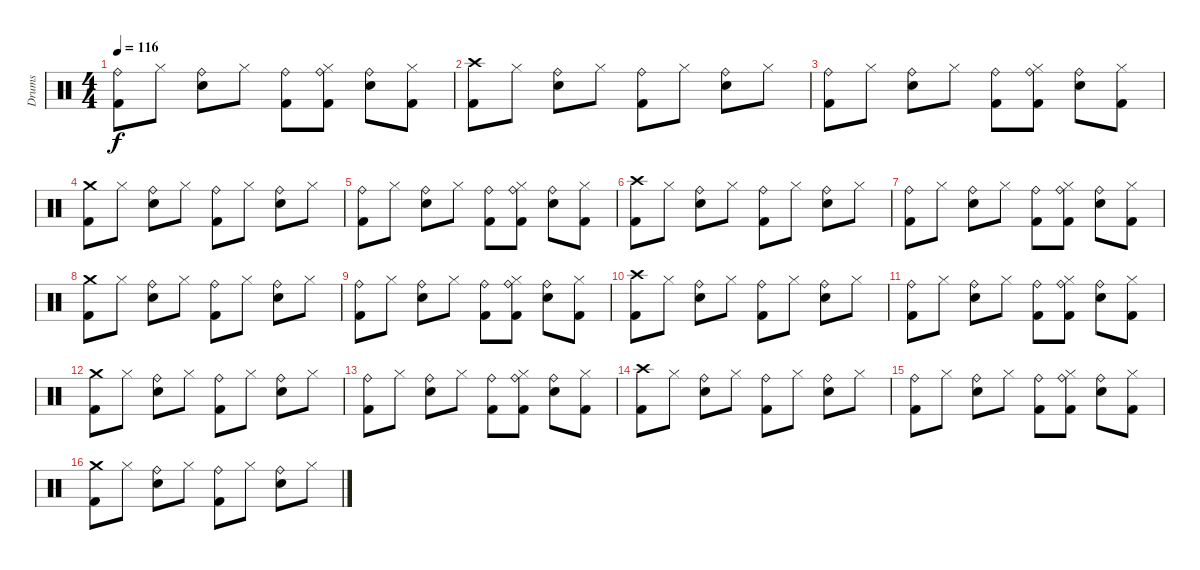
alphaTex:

\track ("Drums" "Drums") {instrument percussion}
\staff {score}
\articulation defaults
\ts (4 4)
\tempo 116
\clef neutral
\ks c
("Kick (hit) 2" "Ride (bell)").8{dy f} "Hi-Hat (closed)".8 ("Snare (hit) 2" "Ride (bell)").8 "Hi-Hat (closed)".8 ("Kick (hit) 2" "Ride (bell)").8 ("Kick (hit) 2" "Hi-Hat (closed)" "Ride (bell)").8 ("Snare (hit) 2" "Ride (bell)").8 ("Kick (hit) 2" "Hi-Hat (closed)").8 |
("Kick (hit) 2" "Crash high (hit)").8 "Hi-Hat (closed)".8 ("Snare (hit) 2" "Ride (bell)").8 "Hi-Hat (closed)".8 ("Kick (hit) 2" "Ride (bell)").8 "Hi-Hat (closed)".8 ("Snare (hit) 2" "Ride (bell)").8 "Hi-Hat (closed)".8 |
("Kick (hit) 2" "Ride (bell)").8 "Hi-Hat (closed)".8 ("Snare (hit) 2" "Ride (bell)").8 "Hi-Hat (closed)".8 ("Kick (hit) 2" "Ride (bell)").8 ("Kick (hit) 2" "Hi-Hat (closed)" "Ride (bell)").8 ("Snare (hit) 2" "Ride (bell)").8 ("Kick (hit) 2" "Hi-Hat (closed)").8 |
("Kick (hit) 2" "Crash medium (hit)").8 "Hi-Hat (closed)".8 ("Snare (hit) 2" "Ride (bell)").8 "Hi-Hat (closed)".8 ("Kick (hit) 2" "Ride (bell)").8 "Hi-Hat (closed)".8 ("Snare (hit) 2" "Ride (bell)").8 "Hi-Hat (closed)".8 |
("Kick (hit) 2" "Ride (bell)").8 "Hi-Hat (closed)".8 ("Snare (hit) 2" "Ride (bell)").8 "Hi-Hat (closed)".8 ("Kick (hit) 2" "Ride (bell)").8 ("Kick (hit) 2" "Hi-Hat (closed)" "Ride (bell)").8 ("Snare (hit) 2" "Ride (bell)").8 ("Kick (hit) 2" "Hi-Hat (closed)").8 |
("Kick (hit) 2" "Crash high (hit)").8 "Hi-Hat (closed)".8 ("Snare (hit) 2" "Ride (bell)").8 "Hi-Hat (closed)".8 ("Kick (hit) 2" "Ride (bell)").8 "Hi-Hat (closed)".8 ("Snare (hit) 2" "Ride (bell)").8 "Hi-Hat (closed)".8 |
("Kick (hit) 2" "Ride (bell)").8 "Hi-Hat (closed)".8 ("Snare (hit) 2" "Ride (bell)").8 "Hi-Hat (closed)".8 ("Kick (hit) 2" "Ride (bell)").8 ("Kick (hit) 2" "Hi-Hat (closed)" "Ride (bell)").8 ("Snare (hit) 2" "Ride (bell)").8 ("Kick (hit) 2" "Hi-Hat (closed)").8 |
("Kick (hit) 2" "Crash medium (hit)").8 "Hi-Hat (closed)".8 ("Snare (hit) 2" "Ride (bell)").8 "Hi-Hat (closed)".8 ("Kick (hit) 2" "Ride (bell)").8 "Hi-Hat (closed)".8 ("Snare (hit) 2" "Ride (bell)").8 "Hi-Hat (closed)".8 |
("Kick (hit) 2" "Ride (bell)").8 "Hi-Hat (closed)".8 ("Snare (hit) 2" "Ride (bell)").8 "Hi-Hat (closed)".8 ("Kick (hit) 2" "Ride (bell)").8 ("Kick (hit) 2" "Hi-Hat (closed)" "Ride (bell)").8 ("Snare (hit) 2" "Ride (bell)").8 ("Kick (hit) 2" "Hi-Hat (closed)").8 |
("Kick (hit) 2" "Crash high (hit)").8 "Hi-Hat (closed)".8 ("Snare (hit) 2" "Ride (bell)").8 "Hi-Hat (closed)".8 ("Kick (hit) 2" "Ride (bell)").8 "Hi-Hat (closed)".8 ("Snare (hit) 2" "Ride (bell)").8 "Hi-Hat (closed)".8 |
("Kick (hit) 2" "Ride (bell)").8 "Hi-Hat (closed)".8 ("Snare (hit) 2" "Ride (bell)").8 "Hi-Hat (closed)".8 ("Kick (hit) 2" "Ride (bell)").8 ("Kick (hit) 2" "Hi-Hat (closed)" "Ride (bell)").8 ("Snare (hit) 2" "Ride (bell)").8 ("Kick (hit) 2" "Hi-Hat (closed)").8 |
("Kick (hit) 2" "Crash medium (hit)").8 "Hi-Hat (closed)".8 ("Snare (hit) 2" "Ride (bell)").8 "Hi-Hat (closed)".8 ("Kick (hit) 2" "Ride (bell)").8 "Hi-Hat (closed)".8 ("Snare (hit) 2" "Ride (bell)").8 "Hi-Hat (closed)".8 |
("Kick (hit) 2" "Ride (bell)").8 "Hi-Hat (closed)".8 ("Snare (hit) 2" "Ride (bell)").8 "Hi-Hat (closed)".8 ("Kick (hit) 2" "Ride (bell)").8 ("Kick (hit) 2" "Hi-Hat (closed)" "Ride (bell)").8 ("Snare (hit) 2" "Ride (bell)").8 ("Kick (hit) 2" "Hi-Hat (closed)").8 |
("Kick (hit) 2" "Crash high (hit)").8 "Hi-Hat (closed)".8 ("Snare (hit) 2" "Ride (bell)").8 "Hi-Hat (closed)".8 ("Kick (hit) 2" "Ride (bell)").8 "Hi-Hat (closed)".8 ("Snare (hit) 2" "Ride (bell)").8 "Hi-Hat (closed)".8 |
("Kick (hit) 2" "Ride (bell)").8 "Hi-Hat (closed)".8 ("Snare (hit) 2" "Ride (bell)").8 "Hi-Hat (closed)".8 ("Kick (hit) 2" "Ride (bell)").8 ("Kick (hit) 2" "Hi-Hat (closed)" "Ride (bell)").8 ("Snare (hit) 2" "Ride (bell)").8 ("Kick (hit) 2" "Hi-Hat (closed)").8 |
("Kick (hit) 2" "Crash medium (hit)").8 "Hi-Hat (closed)".8 ("Snare (hit) 2" "Ride (bell)").8 "Hi-Hat (closed)".8 ("Kick (hit) 2" "Ride (bell)").8 "Hi-Hat (closed)".8 ("Snare (hit) 2" "Ride (bell)").8 "Hi-Hat (closed)".8
